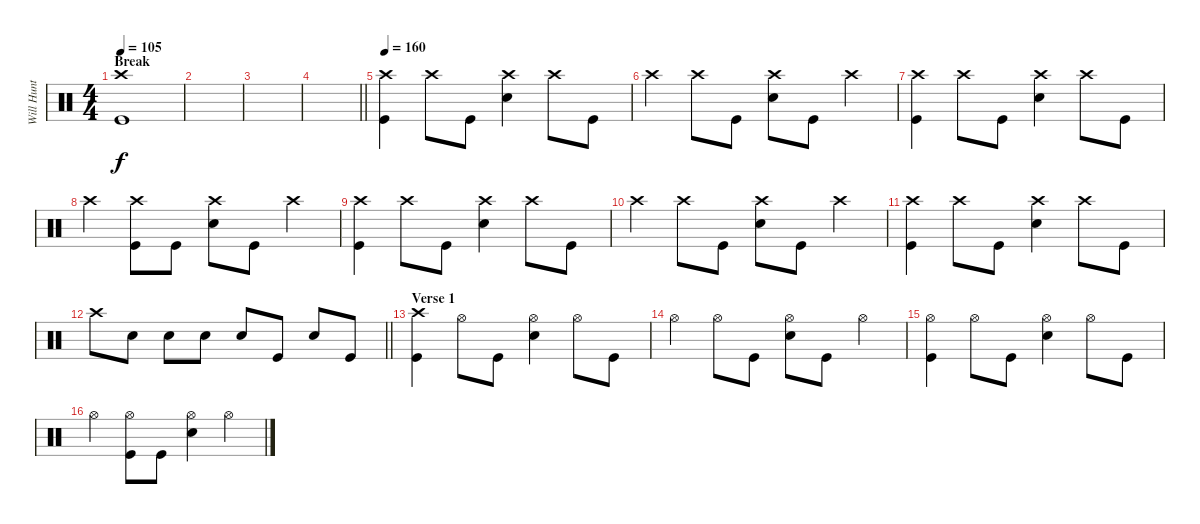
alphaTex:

\track ("Will Hunt" "Will Hunt") {instrument percussion}
\staff {score}
\articulation defaults
\ts (4 4)
\section ("" "Break")
\tempo 105
\clef neutral
\ks c
("Crash high (hit)" "Kick (hit)").1{dy f} |
|
|
\barLineRight lightlight
|
\section ("" "")
\tempo 160
("Crash high (hit)" "Kick (hit)").4 "Crash high (hit)".8 "Kick (hit)".8 ("Crash high (hit)" "Snare (hit) 2").4 "Crash high (hit)".8 "Kick (hit)".8 |
"Crash high (hit)".4 "Crash high (hit)".8 "Kick (hit)".8 ("Crash high (hit)" "Snare (hit) 2").8 "Kick (hit)".8 "Crash high (hit)".4 |
("Crash high (hit)" "Kick (hit)").4 "Crash high (hit)".8 "Kick (hit)".8 ("Crash high (hit)" "Snare (hit) 2").4 "Crash high (hit)".8 "Kick (hit)".8 |
"Crash high (hit)".4 ("Crash high (hit)" "Kick (hit)").8 "Kick (hit)".8 ("Crash high (hit)" "Snare (hit) 2").8 "Kick (hit)".8 "Crash high (hit)".4 |
("Crash high (hit)" "Kick (hit)").4 "Crash high (hit)".8 "Kick (hit)".8 ("Crash high (hit)" "Snare (hit) 2").4 "Crash high (hit)".8 "Kick (hit)".8 |
"Crash high (hit)".4 "Crash high (hit)".8 "Kick (hit)".8 ("Crash high (hit)" "Snare (hit) 2").8 "Kick (hit)".8 "Crash high (hit)".4 |
("Crash high (hit)" "Kick (hit)").4 "Crash high (hit)".8 "Kick (hit)".8 ("Crash high (hit)" "Snare (hit) 2").4 "Crash high (hit)".8 "Kick (hit)".8 |
\barLineRight lightlight "Crash high (hit)".8 "Snare (hit) 2".8 "Snare (hit) 2".8 "Snare (hit) 2".8 "Snare (hit) 2".8 "Kick (hit)".8 "Snare (hit) 2".8 "Kick (hit)".8
|
\section ("" "Verse 1")
("Crash high (hit)" "Kick (hit)").4 "Hi-Hat (open)".8 "Kick (hit)".8 ("Hi-Hat (open)" "Snare (hit) 2").4 "Hi-Hat (open)".8 "Kick (hit)".8 |
"Hi-Hat (open)".4 "Hi-Hat (open)".8 "Kick (hit)".8 ("Hi-Hat (open)" "Snare (hit) 2").8 "Kick (hit)".8 "Hi-Hat (open)".4 |
("Hi-Hat (open)" "Kick (hit)").4 "Hi-Hat (open)".8 "Kick (hit)".8 ("Hi-Hat (open)" "Snare (hit) 2").4 "Hi-Hat (open)".8 "Kick (hit)".8 |
"Hi-Hat (open)".4 ("Hi-Hat (open)" "Kick (hit)").8 "Kick (hit)".8 ("Hi-Hat (open)" "Snare (hit) 2").4 "Hi-Hat (open)".4
